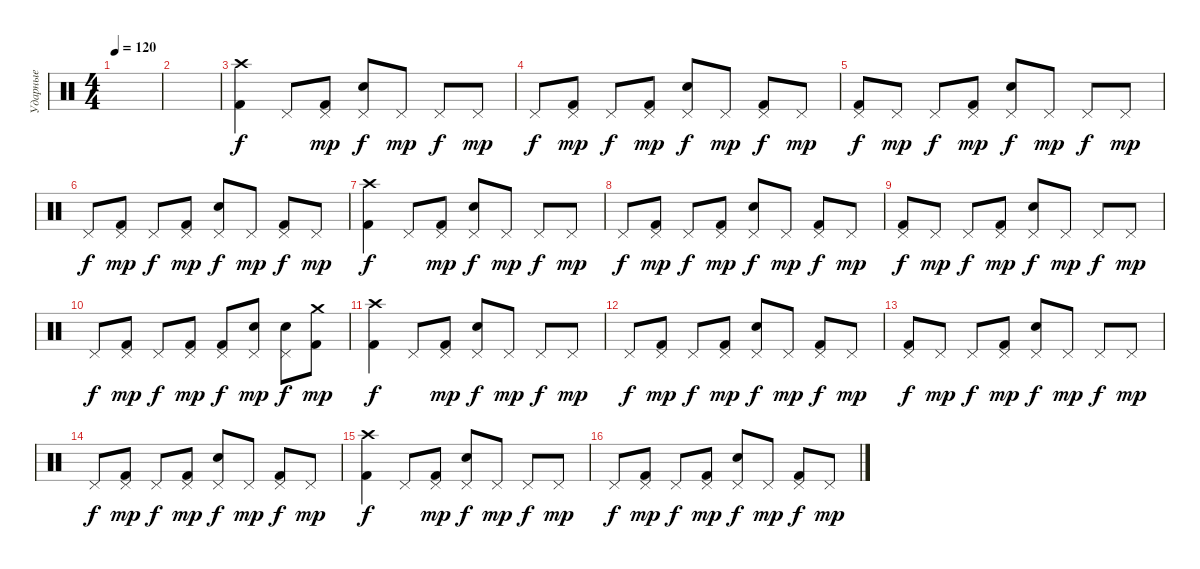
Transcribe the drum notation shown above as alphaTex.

\track ("Ударные" "Ударные") {instrument percussion}
\staff {score}
\articulation defaults
\ts (4 4)
\tempo 120
\clef neutral
\ks c
|
|
("Crash high (hit)" "Kick (hit) 2").4 "Pedal Hi-Hat (hit)".8 ("Pedal Hi-Hat (hit)" "Kick (hit) 2").8{dy mp} ("Pedal Hi-Hat (hit)" "Electric Snare (hit)").8{dy f} "Pedal Hi-Hat (hit)".8{dy mp} "Pedal Hi-Hat (hit)".8{dy f} "Pedal Hi-Hat (hit)".8{dy mp} |
"Pedal Hi-Hat (hit)".8{dy f} ("Pedal Hi-Hat (hit)" "Kick (hit) 2").8{dy mp} "Pedal Hi-Hat (hit)".8{dy f} ("Pedal Hi-Hat (hit)" "Kick (hit) 2").8{dy mp} ("Pedal Hi-Hat (hit)" "Electric Snare (hit)").8{dy f} "Pedal Hi-Hat (hit)".8{dy mp} ("Pedal Hi-Hat (hit)" "Kick (hit) 2").8{dy f} "Pedal Hi-Hat (hit)".8{dy mp} |
("Pedal Hi-Hat (hit)" "Kick (hit) 2").8{dy f} "Pedal Hi-Hat (hit)".8{dy mp} "Pedal Hi-Hat (hit)".8{dy f} ("Pedal Hi-Hat (hit)" "Kick (hit) 2").8{dy mp} ("Pedal Hi-Hat (hit)" "Electric Snare (hit)").8{dy f} "Pedal Hi-Hat (hit)".8{dy mp} "Pedal Hi-Hat (hit)".8{dy f} "Pedal Hi-Hat (hit)".8{dy mp} |
"Pedal Hi-Hat (hit)".8{dy f} ("Pedal Hi-Hat (hit)" "Kick (hit) 2").8{dy mp} "Pedal Hi-Hat (hit)".8{dy f} ("Pedal Hi-Hat (hit)" "Kick (hit) 2").8{dy mp} ("Pedal Hi-Hat (hit)" "Electric Snare (hit)").8{dy f} "Pedal Hi-Hat (hit)".8{dy mp} ("Pedal Hi-Hat (hit)" "Kick (hit) 2").8{dy f} "Pedal Hi-Hat (hit)".8{dy mp} |
("Crash high (hit)" "Kick (hit) 2").4{dy f} "Pedal Hi-Hat (hit)".8 ("Pedal Hi-Hat (hit)" "Kick (hit) 2").8{dy mp} ("Pedal Hi-Hat (hit)" "Electric Snare (hit)").8{dy f} "Pedal Hi-Hat (hit)".8{dy mp} "Pedal Hi-Hat (hit)".8{dy f} "Pedal Hi-Hat (hit)".8{dy mp} |
"Pedal Hi-Hat (hit)".8{dy f} ("Pedal Hi-Hat (hit)" "Kick (hit) 2").8{dy mp} "Pedal Hi-Hat (hit)".8{dy f} ("Pedal Hi-Hat (hit)" "Kick (hit) 2").8{dy mp} ("Pedal Hi-Hat (hit)" "Electric Snare (hit)").8{dy f} "Pedal Hi-Hat (hit)".8{dy mp} ("Pedal Hi-Hat (hit)" "Kick (hit) 2").8{dy f} "Pedal Hi-Hat (hit)".8{dy mp} |
("Pedal Hi-Hat (hit)" "Kick (hit) 2").8{dy f} "Pedal Hi-Hat (hit)".8{dy mp} "Pedal Hi-Hat (hit)".8{dy f} ("Pedal Hi-Hat (hit)" "Kick (hit) 2").8{dy mp} ("Pedal Hi-Hat (hit)" "Electric Snare (hit)").8{dy f} "Pedal Hi-Hat (hit)".8{dy mp} "Pedal Hi-Hat (hit)".8{dy f} "Pedal Hi-Hat (hit)".8{dy mp} |
"Pedal Hi-Hat (hit)".8{dy f} ("Pedal Hi-Hat (hit)" "Kick (hit) 2").8{dy mp} "Pedal Hi-Hat (hit)".8{dy f} ("Pedal Hi-Hat (hit)" "Kick (hit) 2").8{dy mp} ("Pedal Hi-Hat (hit)" "Kick (hit) 2").8{dy f} ("Pedal Hi-Hat (hit)" "Electric Snare (hit)").8{dy mp} ("Pedal Hi-Hat (hit)" "Electric Snare (hit)").8{dy f} ("Crash medium (hit)" "Kick (hit) 2").8{dy mp} |
("Crash high (hit)" "Kick (hit) 2").4{dy f} "Pedal Hi-Hat (hit)".8 ("Pedal Hi-Hat (hit)" "Kick (hit) 2").8{dy mp} ("Pedal Hi-Hat (hit)" "Electric Snare (hit)").8{dy f} "Pedal Hi-Hat (hit)".8{dy mp} "Pedal Hi-Hat (hit)".8{dy f} "Pedal Hi-Hat (hit)".8{dy mp} |
"Pedal Hi-Hat (hit)".8{dy f} ("Pedal Hi-Hat (hit)" "Kick (hit) 2").8{dy mp} "Pedal Hi-Hat (hit)".8{dy f} ("Pedal Hi-Hat (hit)" "Kick (hit) 2").8{dy mp} ("Pedal Hi-Hat (hit)" "Electric Snare (hit)").8{dy f} "Pedal Hi-Hat (hit)".8{dy mp} ("Pedal Hi-Hat (hit)" "Kick (hit) 2").8{dy f} "Pedal Hi-Hat (hit)".8{dy mp} |
("Pedal Hi-Hat (hit)" "Kick (hit) 2").8{dy f} "Pedal Hi-Hat (hit)".8{dy mp} "Pedal Hi-Hat (hit)".8{dy f} ("Pedal Hi-Hat (hit)" "Kick (hit) 2").8{dy mp} ("Pedal Hi-Hat (hit)" "Electric Snare (hit)").8{dy f} "Pedal Hi-Hat (hit)".8{dy mp} "Pedal Hi-Hat (hit)".8{dy f} "Pedal Hi-Hat (hit)".8{dy mp} |
"Pedal Hi-Hat (hit)".8{dy f} ("Pedal Hi-Hat (hit)" "Kick (hit) 2").8{dy mp} "Pedal Hi-Hat (hit)".8{dy f} ("Pedal Hi-Hat (hit)" "Kick (hit) 2").8{dy mp} ("Pedal Hi-Hat (hit)" "Electric Snare (hit)").8{dy f} "Pedal Hi-Hat (hit)".8{dy mp} ("Pedal Hi-Hat (hit)" "Kick (hit) 2").8{dy f} "Pedal Hi-Hat (hit)".8{dy mp} |
("Crash high (hit)" "Kick (hit) 2").4{dy f} "Pedal Hi-Hat (hit)".8 ("Pedal Hi-Hat (hit)" "Kick (hit) 2").8{dy mp} ("Pedal Hi-Hat (hit)" "Electric Snare (hit)").8{dy f} "Pedal Hi-Hat (hit)".8{dy mp} "Pedal Hi-Hat (hit)".8{dy f} "Pedal Hi-Hat (hit)".8{dy mp} |
"Pedal Hi-Hat (hit)".8{dy f} ("Pedal Hi-Hat (hit)" "Kick (hit) 2").8{dy mp} "Pedal Hi-Hat (hit)".8{dy f} ("Pedal Hi-Hat (hit)" "Kick (hit) 2").8{dy mp} ("Pedal Hi-Hat (hit)" "Electric Snare (hit)").8{dy f} "Pedal Hi-Hat (hit)".8{dy mp} ("Pedal Hi-Hat (hit)" "Kick (hit) 2").8{dy f} "Pedal Hi-Hat (hit)".8{dy mp}
